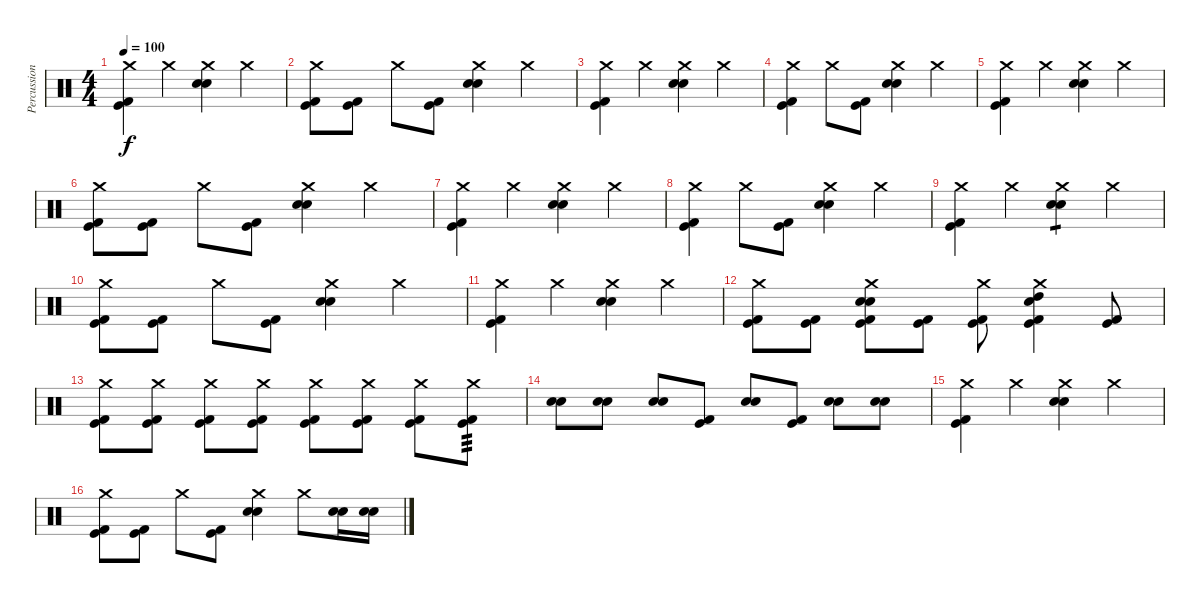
\track ("Percussion" "Percussion") {instrument percussion}
\staff {score}
\articulation defaults
\ts (4 4)
\tempo 100
\clef neutral
\ks c
("Crash medium (hit)" "Kick (hit) 2" "Kick (hit)").4{dy f} "Crash medium (hit)".4 ("Crash medium (hit)" "Electric Snare (hit)" "Snare (hit) 2").4 "Crash medium (hit)".4 |
("Crash medium (hit)" "Kick (hit) 2" "Kick (hit)").8 ("Kick (hit) 2" "Kick (hit)").8 "Crash medium (hit)".8 ("Kick (hit) 2" "Kick (hit)").8 ("Crash medium (hit)" "Electric Snare (hit)" "Snare (hit) 2").4 "Crash medium (hit)".4 |
("Crash medium (hit)" "Kick (hit) 2" "Kick (hit)").4 "Crash medium (hit)".4 ("Crash medium (hit)" "Electric Snare (hit)" "Snare (hit) 2").4 "Crash medium (hit)".4 |
("Crash medium (hit)" "Kick (hit) 2" "Kick (hit)").4 "Crash medium (hit)".8 ("Kick (hit) 2" "Kick (hit)").8 ("Crash medium (hit)" "Electric Snare (hit)" "Snare (hit) 2").4 "Crash medium (hit)".4 |
("Crash medium (hit)" "Kick (hit) 2" "Kick (hit)").4 "Crash medium (hit)".4 ("Crash medium (hit)" "Electric Snare (hit)" "Snare (hit) 2").4 "Crash medium (hit)".4 |
("Crash medium (hit)" "Kick (hit) 2" "Kick (hit)").8 ("Kick (hit) 2" "Kick (hit)").8 "Crash medium (hit)".8 ("Kick (hit) 2" "Kick (hit)").8 ("Crash medium (hit)" "Electric Snare (hit)" "Snare (hit) 2").4 "Crash medium (hit)".4 |
("Crash medium (hit)" "Kick (hit) 2" "Kick (hit)").4 "Crash medium (hit)".4 ("Crash medium (hit)" "Electric Snare (hit)" "Snare (hit) 2").4 "Crash medium (hit)".4 |
("Crash medium (hit)" "Kick (hit) 2" "Kick (hit)").4 "Crash medium (hit)".8 ("Kick (hit) 2" "Kick (hit)").8 ("Crash medium (hit)" "Electric Snare (hit)" "Snare (hit) 2").4 "Crash medium (hit)".4 |
("Crash medium (hit)" "Kick (hit) 2" "Kick (hit)").4 "Crash medium (hit)".4 ("Crash medium (hit)" "Electric Snare (hit)" "Snare (hit) 2").4{tp 1} "Crash medium (hit)".4 |
("Crash medium (hit)" "Kick (hit) 2" "Kick (hit)").8 ("Kick (hit) 2" "Kick (hit)").8 "Crash medium (hit)".8 ("Kick (hit) 2" "Kick (hit)").8 ("Crash medium (hit)" "Electric Snare (hit)" "Snare (hit) 2").4 "Crash medium (hit)".4 |
("Crash medium (hit)" "Kick (hit) 2" "Kick (hit)").4 "Crash medium (hit)".4 ("Crash medium (hit)" "Electric Snare (hit)" "Snare (hit) 2").4 "Crash medium (hit)".4 |
("Crash medium (hit)" "Kick (hit) 2" "Kick (hit)").8 ("Kick (hit) 2" "Kick (hit)").8 ("Crash medium (hit)" "Electric Snare (hit)" "Snare (hit) 2" "Kick (hit) 2" "Kick (hit)").8 ("Kick (hit) 2" "Kick (hit)").8 ("Crash medium (hit)" "Kick (hit) 2" "Kick (hit)").8 ("Crash medium (hit)" "Electric Snare (hit)" "High Tom (hit)" "Kick (hit) 2" "Kick (hit)").4 ("Kick (hit) 2" "Kick (hit)").8 |
("Crash medium (hit)" "Kick (hit) 2" "Kick (hit)").8 ("Crash medium (hit)" "Kick (hit) 2" "Kick (hit)").8 ("Crash medium (hit)" "Kick (hit) 2" "Kick (hit)").8 ("Crash medium (hit)" "Kick (hit) 2" "Kick (hit)").8 ("Crash medium (hit)" "Kick (hit) 2" "Kick (hit)").8 ("Crash medium (hit)" "Kick (hit) 2" "Kick (hit)").8 ("Crash medium (hit)" "Kick (hit) 2" "Kick (hit)").8 ("Crash medium (hit)" "Kick (hit) 2" "Kick (hit)").8{tp 3} |
("Electric Snare (hit)" "Snare (hit) 2").8 ("Electric Snare (hit)" "Snare (hit) 2").8 ("Electric Snare (hit)" "Snare (hit) 2").8 ("Kick (hit) 2" "Kick (hit)").8 ("Electric Snare (hit)" "Snare (hit) 2").8 ("Kick (hit) 2" "Kick (hit)").8 ("Electric Snare (hit)" "Snare (hit) 2").8 ("Electric Snare (hit)" "Snare (hit) 2").8 |
("Crash medium (hit)" "Kick (hit) 2" "Kick (hit)").4 "Crash medium (hit)".4 ("Crash medium (hit)" "Electric Snare (hit)" "Snare (hit) 2").4 "Crash medium (hit)".4 |
("Crash medium (hit)" "Kick (hit) 2" "Kick (hit)").8 ("Kick (hit) 2" "Kick (hit)").8 "Crash medium (hit)".8 ("Kick (hit) 2" "Kick (hit)").8 ("Crash medium (hit)" "Electric Snare (hit)" "Snare (hit) 2").4 "Crash medium (hit)".8 ("Electric Snare (hit)" "Snare (hit) 2").16 ("Electric Snare (hit)" "Snare (hit) 2").16
